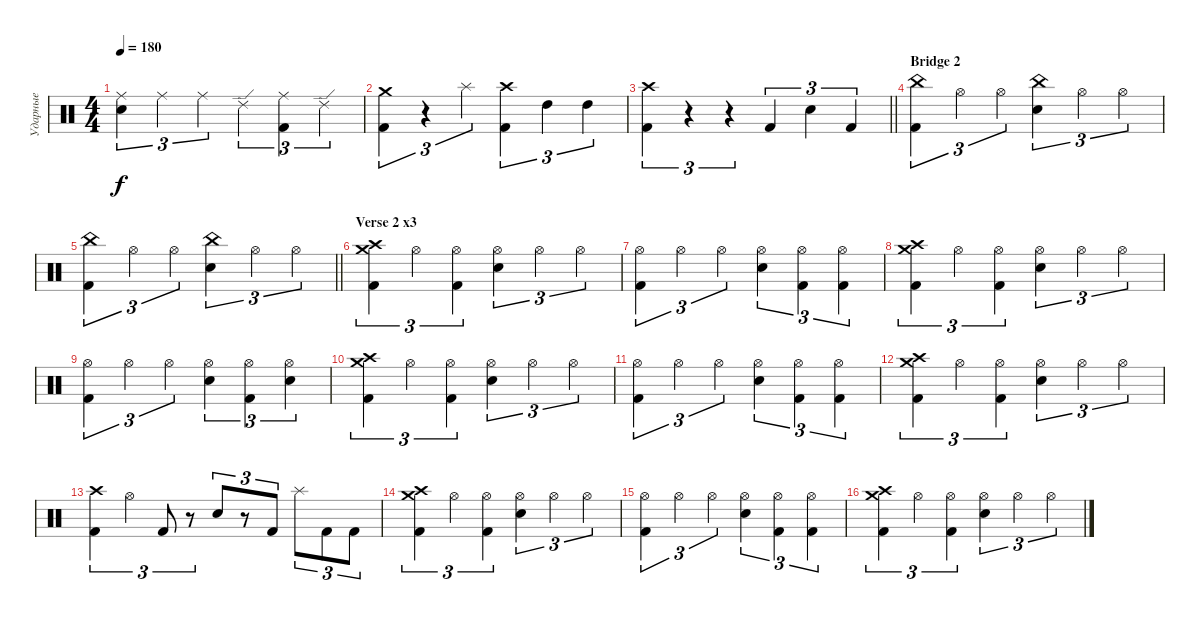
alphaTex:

\track ("Ударные" "Ударные") {instrument percussion}
\staff {score}
\articulation defaults
\ts (4 4)
\tempo 180
\clef neutral
\ks c
("Ride (middle)" "Electric Snare (hit)").4{tu (3 2) dy f} "Ride (middle)".4{tu (3 2)} "Ride (middle)".4{tu (3 2)} "Ride (edge) 2".4{tu (3 2)} ("Ride (middle)" "Kick (hit) 2").4{tu (3 2)} "Ride (edge) 2".4{tu (3 2)} |
("Crash medium (hit)" "Kick (hit) 2").4{tu (3 2)} r.4{tu (3 2)} "Splash (hit)".4{tu (3 2)} ("Crash high (hit)" "Kick (hit) 2").4{tu (3 2)} "High Tom (hit)".4{tu (3 2)} "High Tom (hit)".4{tu (3 2)} |
\barLineRight lightlight
("Crash high (hit)" "Kick (hit) 2").4{tu (3 2)} r.4{tu (3 2)} r.4{tu (3 2)} "Kick (hit) 2".4{tu (3 2)} "Electric Snare (hit)".4{tu (3 2)} "Kick (hit) 2".4{tu (3 2)} |
\section ("" "Bridge 2")
("China (hit)" "Kick (hit) 2").4{tu (3 2)} "Hi-Hat (open)".4{tu (3 2)} "Hi-Hat (open)".4{tu (3 2)} ("China (hit)" "Electric Snare (hit)").4{tu (3 2)} "Hi-Hat (open)".4{tu (3 2)} "Hi-Hat (open)".4{tu (3 2)} |
\barLineRight lightlight
("China (hit)" "Kick (hit) 2").4{tu (3 2)} "Hi-Hat (open)".4{tu (3 2)} "Hi-Hat (open)".4{tu (3 2)} ("China (hit)" "Electric Snare (hit)").4{tu (3 2)} "Hi-Hat (open)".4{tu (3 2)} "Hi-Hat (open)".4{tu (3 2)} |
\section ("" "Verse 2 x3")
("Crash medium (hit)" "Crash high (hit)" "Kick (hit) 2").4{tu (3 2)} "Hi-Hat (open)".4{tu (3 2)} ("Hi-Hat (open)" "Kick (hit) 2").4{tu (3 2)} ("Hi-Hat (open)" "Electric Snare (hit)").4{tu (3 2)} "Hi-Hat (open)".4{tu (3 2)} "Hi-Hat (open)".4{tu (3 2)} |
("Hi-Hat (open)" "Kick (hit) 2").4{tu (3 2)} "Hi-Hat (open)".4{tu (3 2)} "Hi-Hat (open)".4{tu (3 2)} ("Hi-Hat (open)" "Electric Snare (hit)").4{tu (3 2)} ("Hi-Hat (open)" "Kick (hit) 2").4{tu (3 2)} ("Hi-Hat (open)" "Kick (hit) 2").4{tu (3 2)} |
("Crash medium (hit)" "Crash high (hit)" "Kick (hit) 2").4{tu (3 2)} "Hi-Hat (open)".4{tu (3 2)} ("Hi-Hat (open)" "Kick (hit) 2").4{tu (3 2)} ("Hi-Hat (open)" "Electric Snare (hit)").4{tu (3 2)} "Hi-Hat (open)".4{tu (3 2)} "Hi-Hat (open)".4{tu (3 2)} |
("Hi-Hat (open)" "Kick (hit) 2").4{tu (3 2)} "Hi-Hat (open)".4{tu (3 2)} "Hi-Hat (open)".4{tu (3 2)} ("Hi-Hat (open)" "Electric Snare (hit)").4{tu (3 2)} ("Hi-Hat (open)" "Kick (hit) 2").4{tu (3 2)} ("Hi-Hat (open)" "Electric Snare (hit)").4{tu (3 2)} |
("Crash medium (hit)" "Crash high (hit)" "Kick (hit) 2").4{tu (3 2)} "Hi-Hat (open)".4{tu (3 2)} ("Hi-Hat (open)" "Kick (hit) 2").4{tu (3 2)} ("Hi-Hat (open)" "Electric Snare (hit)").4{tu (3 2)} "Hi-Hat (open)".4{tu (3 2)} "Hi-Hat (open)".4{tu (3 2)} |
("Hi-Hat (open)" "Kick (hit) 2").4{tu (3 2)} "Hi-Hat (open)".4{tu (3 2)} "Hi-Hat (open)".4{tu (3 2)} ("Hi-Hat (open)" "Electric Snare (hit)").4{tu (3 2)} ("Hi-Hat (open)" "Kick (hit) 2").4{tu (3 2)} ("Hi-Hat (open)" "Kick (hit) 2").4{tu (3 2)} |
("Crash medium (hit)" "Crash high (hit)" "Kick (hit) 2").4{tu (3 2)} "Hi-Hat (open)".4{tu (3 2)} ("Hi-Hat (open)" "Kick (hit) 2").4{tu (3 2)} ("Hi-Hat (open)" "Electric Snare (hit)").4{tu (3 2)} "Hi-Hat (open)".4{tu (3 2)} "Hi-Hat (open)".4{tu (3 2)} |
("Crash high (hit)" "Kick (hit) 2").4{tu (3 2)} "Hi-Hat (open)".4{tu (3 2)} "Kick (hit) 2".8{tu (3 2)} r.8{tu (3 2)} "Electric Snare (hit)".8{tu (3 2)} r.8{tu (3 2)} "Kick (hit) 2".8{tu (3 2)} "Splash (hit)".8{tu (3 2)} "Kick (hit) 2".8{tu (3 2)} "Kick (hit) 2".8{tu (3 2)} |
("Crash medium (hit)" "Crash high (hit)" "Kick (hit) 2").4{tu (3 2)} "Hi-Hat (open)".4{tu (3 2)} ("Hi-Hat (open)" "Kick (hit) 2").4{tu (3 2)} ("Hi-Hat (open)" "Electric Snare (hit)").4{tu (3 2)} "Hi-Hat (open)".4{tu (3 2)} "Hi-Hat (open)".4{tu (3 2)} |
("Hi-Hat (open)" "Kick (hit) 2").4{tu (3 2)} "Hi-Hat (open)".4{tu (3 2)} "Hi-Hat (open)".4{tu (3 2)} ("Hi-Hat (open)" "Electric Snare (hit)").4{tu (3 2)} ("Hi-Hat (open)" "Kick (hit) 2").4{tu (3 2)} ("Hi-Hat (open)" "Kick (hit) 2").4{tu (3 2)} |
("Crash medium (hit)" "Crash high (hit)" "Kick (hit) 2").4{tu (3 2)} "Hi-Hat (open)".4{tu (3 2)} ("Hi-Hat (open)" "Kick (hit) 2").4{tu (3 2)} ("Hi-Hat (open)" "Electric Snare (hit)").4{tu (3 2)} "Hi-Hat (open)".4{tu (3 2)} "Hi-Hat (open)".4{tu (3 2)}
